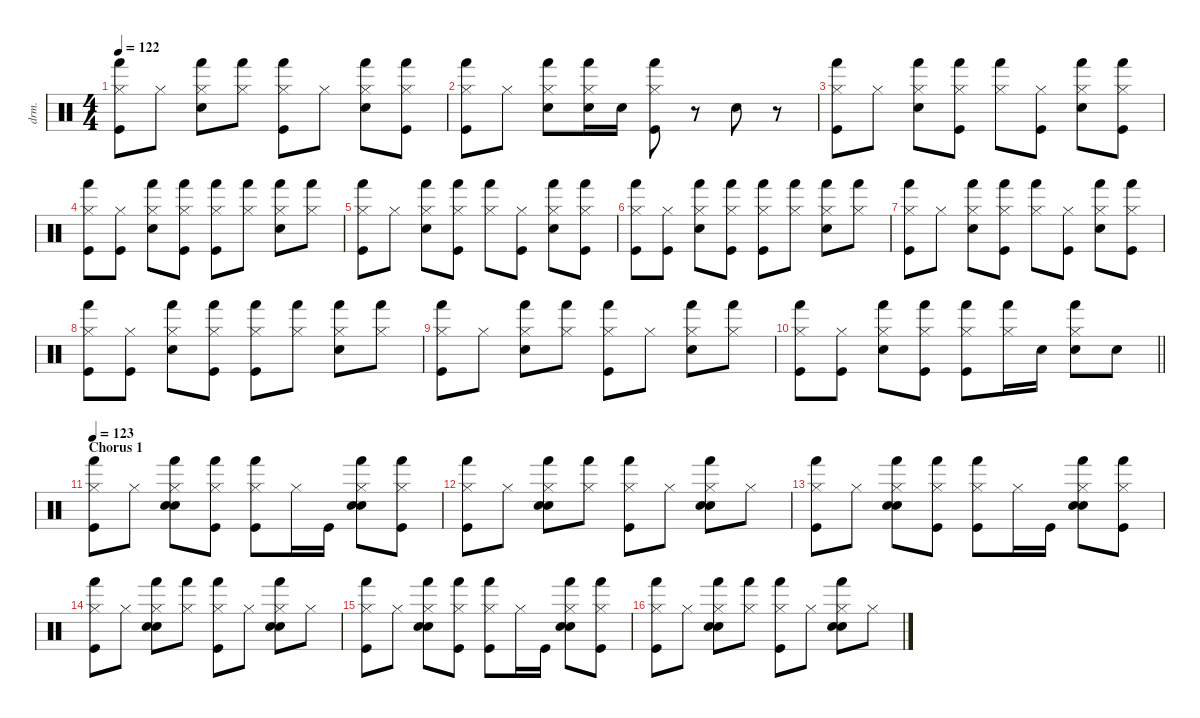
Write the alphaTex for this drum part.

\defaultSystemsLayout 4
\hideDynamics
\bracketExtendMode nobrackets
\otherSystemsTrackNameOrientation horizontal
\track ("Drums" "drm.") {defaultSystemsLayout 4 instrument percussion}
\staff {score}
\articulation defaults
\ts (4 4)
\tempo 122
\clef neutral
\ks c
("Hi-Hat (closed)" "Kick (hit)" "Hand (hit)").8{dy fff beam Down} "Hi-Hat (closed)".8{beam Down} ("Snare (hit) 2" "Hi-Hat (closed)" "Hand (hit)").8{beam Down} ("Hand (hit)" "Hi-Hat (closed)").8{beam Down} ("Hand (hit)" "Kick (hit)" "Hi-Hat (closed)").8{beam Down} "Hi-Hat (closed)".8{beam Down} ("Hi-Hat (closed)" "Hand (hit)" "Snare (hit) 2").8{beam Down} ("Hi-Hat (closed)" "Hand (hit)" "Kick (hit)").8{beam Down} |
("Hi-Hat (closed)" "Kick (hit)" "Hand (hit)").8{beam Down} "Hi-Hat (closed)".8{beam Down} ("Hi-Hat (closed)" "Hand (hit)" "Snare (hit) 2").8{beam Down} ("Hi-Hat (closed)" "Snare (hit) 2" "Hand (hit)").16{beam Down} "Snare (hit) 2".16{beam Down} ("Hi-Hat (closed)" "Hand (hit)" "Kick (hit)").8{beam Down} r.8{beam Down} "Snare (hit) 2".8{beam Down} r.8{beam Down} |
("Hand (hit)" "Hi-Hat (closed)" "Kick (hit)").8{beam Down} "Hi-Hat (closed)".8{beam Down} ("Snare (hit) 2" "Hi-Hat (closed)" "Hand (hit)").8{beam Down} ("Hand (hit)" "Hi-Hat (closed)" "Kick (hit)").8{beam Down} ("Hi-Hat (closed)" "Hand (hit)").8{beam Down} ("Kick (hit)" "Hi-Hat (closed)").8{beam Down} ("Hi-Hat (closed)" "Snare (hit) 2" "Hand (hit)").8{beam Down} ("Kick (hit)" "Hi-Hat (closed)" "Hand (hit)").8{beam Down} |
("Kick (hit)" "Hi-Hat (closed)" "Hand (hit)").8{beam Down} ("Kick (hit)" "Hi-Hat (closed)").8{beam Down} ("Snare (hit) 2" "Hand (hit)" "Hi-Hat (closed)").8{beam Down} ("Kick (hit)" "Hand (hit)" "Hi-Hat (closed)").8{beam Down} ("Hi-Hat (closed)" "Kick (hit)" "Hand (hit)").8{beam Down} ("Hand (hit)" "Hi-Hat (closed)").8{beam Down} ("Snare (hit) 2" "Hand (hit)" "Hi-Hat (closed)").8{beam Down} ("Hand (hit)" "Hi-Hat (closed)").8{beam Down} |
("Hand (hit)" "Hi-Hat (closed)" "Kick (hit)").8{beam Down} "Hi-Hat (closed)".8{beam Down} ("Snare (hit) 2" "Hi-Hat (closed)" "Hand (hit)").8{beam Down} ("Hand (hit)" "Hi-Hat (closed)" "Kick (hit)").8{beam Down} ("Hi-Hat (closed)" "Hand (hit)").8{beam Down} ("Kick (hit)" "Hi-Hat (closed)").8{beam Down} ("Hi-Hat (closed)" "Snare (hit) 2" "Hand (hit)").8{beam Down} ("Kick (hit)" "Hi-Hat (closed)" "Hand (hit)").8{beam Down} |
("Kick (hit)" "Hi-Hat (closed)" "Hand (hit)").8{beam Down} ("Kick (hit)" "Hi-Hat (closed)").8{beam Down} ("Snare (hit) 2" "Hand (hit)" "Hi-Hat (closed)").8{beam Down} ("Kick (hit)" "Hand (hit)" "Hi-Hat (closed)").8{beam Down} ("Hi-Hat (closed)" "Kick (hit)" "Hand (hit)").8{beam Down} ("Hand (hit)" "Hi-Hat (closed)").8{beam Down} ("Snare (hit) 2" "Hand (hit)" "Hi-Hat (closed)").8{beam Down} ("Hand (hit)" "Hi-Hat (closed)").8{beam Down} |
("Hand (hit)" "Hi-Hat (closed)" "Kick (hit)").8{beam Down} "Hi-Hat (closed)".8{beam Down} ("Snare (hit) 2" "Hi-Hat (closed)" "Hand (hit)").8{beam Down} ("Hand (hit)" "Hi-Hat (closed)" "Kick (hit)").8{beam Down} ("Hi-Hat (closed)" "Hand (hit)").8{beam Down} ("Kick (hit)" "Hi-Hat (closed)").8{beam Down} ("Hi-Hat (closed)" "Snare (hit) 2" "Hand (hit)").8{beam Down} ("Kick (hit)" "Hi-Hat (closed)" "Hand (hit)").8{beam Down} |
("Kick (hit)" "Hi-Hat (closed)" "Hand (hit)").8{beam Down} ("Kick (hit)" "Hi-Hat (closed)").8{beam Down} ("Snare (hit) 2" "Hand (hit)" "Hi-Hat (closed)").8{beam Down} ("Kick (hit)" "Hand (hit)" "Hi-Hat (closed)").8{beam Down} ("Hi-Hat (closed)" "Kick (hit)" "Hand (hit)").8{beam Down} ("Hand (hit)" "Hi-Hat (closed)").8{beam Down} ("Snare (hit) 2" "Hand (hit)" "Hi-Hat (closed)").8{beam Down} ("Hand (hit)" "Hi-Hat (closed)").8{beam Down} |
("Hi-Hat (closed)" "Kick (hit)" "Hand (hit)").8{beam Down} "Hi-Hat (closed)".8{beam Down} ("Hi-Hat (closed)" "Snare (hit) 2" "Hand (hit)").8{beam Down} ("Hi-Hat (closed)" "Hand (hit)").8{beam Down} ("Hi-Hat (closed)" "Kick (hit)" "Hand (hit)").8{beam Down} "Hi-Hat (closed)".8{beam Down} ("Hi-Hat (closed)" "Hand (hit)" "Snare (hit) 2").8{beam Down} ("Hi-Hat (closed)" "Hand (hit)").8{beam Down} |
\barLineRight lightlight
("Hi-Hat (closed)" "Hand (hit)" "Kick (hit)").8{beam Down} ("Kick (hit)" "Hi-Hat (closed)").8{beam Down} ("Hi-Hat (closed)" "Hand (hit)" "Snare (hit) 2").8{beam Down} ("Hi-Hat (closed)" "Hand (hit)" "Kick (hit)").8{beam Down} ("Hand (hit)" "Hi-Hat (closed)" "Kick (hit)").8{beam Down} ("Hand (hit)" "Hi-Hat (closed)").16{beam Down} "Snare (hit) 2".16{beam Down} ("Hi-Hat (closed)" "Hand (hit)" "Snare (hit) 2").8{beam Down} "Snare (hit) 2".8{beam Down} |
\section ("" "Chorus 1")
\tempo 123
("Kick (hit)" "Hand (hit)" "Hi-Hat (closed)").8{beam Down} "Hi-Hat (closed)".8{beam Down} ("Hi-Hat (closed)" "Snare (hit) 2" "Hand (hit)" "Hand Clap (hit)").8{beam Down} ("Hand (hit)" "Kick (hit)" "Hi-Hat (closed)").8{beam Down} ("Hi-Hat (closed)" "Hand (hit)" "Kick (hit)").8{beam Down} "Hi-Hat (closed)".16{beam Down} "Kick (hit)".16{beam Down} ("Hand Clap (hit)" "Hi-Hat (closed)" "Hand (hit)" "Snare (hit) 2").8{dy f beam Down} ("Hi-Hat (closed)" "Hand (hit)" "Kick (hit)").8{dy fff beam Down} |
("Hi-Hat (closed)" "Hand (hit)" "Kick (hit)").8{beam Down} "Hi-Hat (closed)".8{beam Down} ("Hand Clap (hit)" "Snare (hit) 2" "Hand (hit)" "Hi-Hat (closed)").8{dy f beam Down} ("Hi-Hat (closed)" "Hand (hit)").8{dy fff beam Down} ("Hi-Hat (closed)" "Kick (hit)" "Hand (hit)").8{beam Down} "Hi-Hat (closed)".8{beam Down} ("Hand Clap (hit)" "Snare (hit) 2" "Hand (hit)" "Hi-Hat (closed)").8{dy f beam Down} "Hi-Hat (closed)".8{dy fff beam Down} |
("Kick (hit)" "Hand (hit)" "Hi-Hat (closed)").8{beam Down} "Hi-Hat (closed)".8{beam Down} ("Hi-Hat (closed)" "Snare (hit) 2" "Hand (hit)" "Hand Clap (hit)").8{beam Down} ("Hand (hit)" "Kick (hit)" "Hi-Hat (closed)").8{beam Down} ("Hi-Hat (closed)" "Hand (hit)" "Kick (hit)").8{beam Down} "Hi-Hat (closed)".16{beam Down} "Kick (hit)".16{beam Down} ("Hand Clap (hit)" "Hi-Hat (closed)" "Hand (hit)" "Snare (hit) 2").8{dy f beam Down} ("Hi-Hat (closed)" "Hand (hit)" "Kick (hit)").8{dy fff beam Down} |
("Hi-Hat (closed)" "Hand (hit)" "Kick (hit)").8{beam Down} "Hi-Hat (closed)".8{beam Down} ("Hand Clap (hit)" "Snare (hit) 2" "Hand (hit)" "Hi-Hat (closed)").8{dy f beam Down} ("Hi-Hat (closed)" "Hand (hit)").8{dy fff beam Down} ("Hi-Hat (closed)" "Kick (hit)" "Hand (hit)").8{beam Down} "Hi-Hat (closed)".8{beam Down} ("Hand Clap (hit)" "Snare (hit) 2" "Hand (hit)" "Hi-Hat (closed)").8{dy f beam Down} "Hi-Hat (closed)".8{dy fff beam Down} |
("Kick (hit)" "Hand (hit)" "Hi-Hat (closed)").8{beam Down} "Hi-Hat (closed)".8{beam Down} ("Hi-Hat (closed)" "Snare (hit) 2" "Hand (hit)" "Hand Clap (hit)").8{beam Down} ("Hand (hit)" "Kick (hit)" "Hi-Hat (closed)").8{beam Down} ("Hi-Hat (closed)" "Hand (hit)" "Kick (hit)").8{beam Down} "Hi-Hat (closed)".16{beam Down} "Kick (hit)".16{beam Down} ("Hand Clap (hit)" "Hi-Hat (closed)" "Hand (hit)" "Snare (hit) 2").8{dy f beam Down} ("Hi-Hat (closed)" "Hand (hit)" "Kick (hit)").8{dy fff beam Down} |
("Hi-Hat (closed)" "Hand (hit)" "Kick (hit)").8{beam Down} "Hi-Hat (closed)".8{beam Down} ("Hand Clap (hit)" "Snare (hit) 2" "Hand (hit)" "Hi-Hat (closed)").8{dy f beam Down} ("Hi-Hat (closed)" "Hand (hit)").8{dy fff beam Down} ("Hi-Hat (closed)" "Kick (hit)" "Hand (hit)").8{beam Down} "Hi-Hat (closed)".8{beam Down} ("Hand Clap (hit)" "Snare (hit) 2" "Hand (hit)" "Hi-Hat (closed)").8{dy f beam Down} "Hi-Hat (closed)".8{dy fff beam Down}
